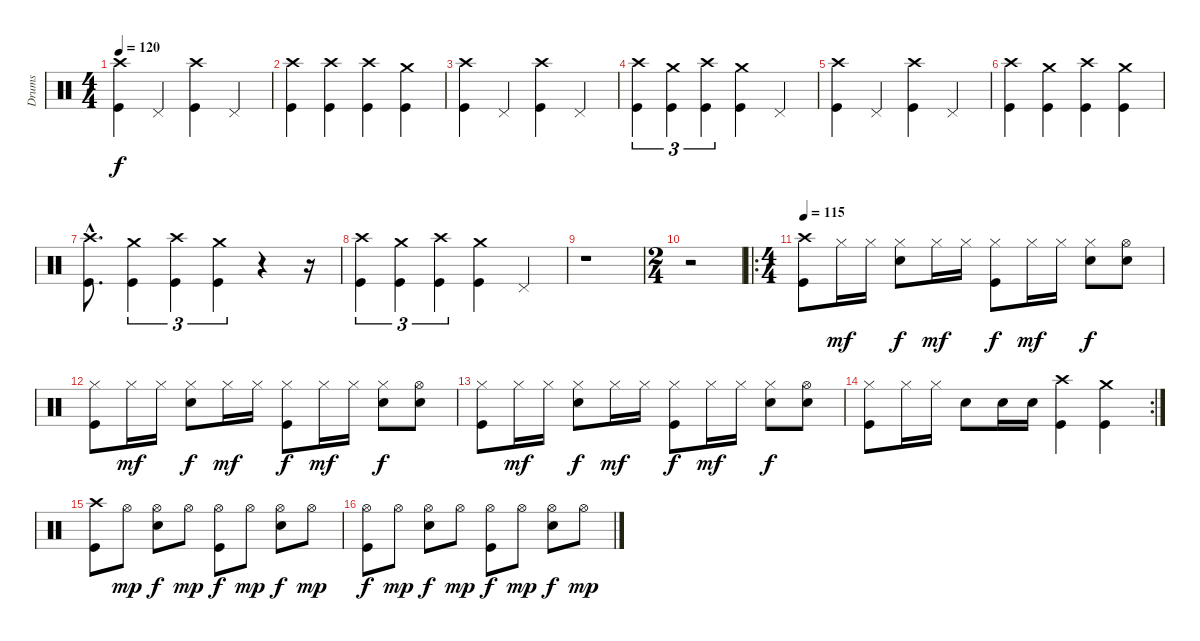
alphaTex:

\track ("Drums" "Drums") {instrument percussion}
\staff {score}
\articulation defaults
\ts (4 4)
\tempo 120
\tempo 100
\tempo 120
\clef neutral
\ks c
("Crash high (hit)" "Kick (hit)").4{dy f} "Pedal Hi-Hat (hit)".4 ("Crash high (hit)" "Kick (hit)").4 "Pedal Hi-Hat (hit)".4 |
("Crash high (hit)" "Kick (hit)").4 ("Crash high (hit)" "Kick (hit)").4 ("Crash high (hit)" "Kick (hit)").4 ("Crash medium (hit)" "Kick (hit)").4 |
("Crash high (hit)" "Kick (hit)").4 "Pedal Hi-Hat (hit)".4 ("Crash high (hit)" "Kick (hit)").4 "Pedal Hi-Hat (hit)".4 |
("Crash high (hit)" "Kick (hit)").4{tu (3 2)} ("Crash medium (hit)" "Kick (hit)").4{tu (3 2)} ("Crash high (hit)" "Kick (hit)").4{tu (3 2)} ("Crash medium (hit)" "Kick (hit)").4 "Pedal Hi-Hat (hit)".4 |
("Crash high (hit)" "Kick (hit)").4 "Pedal Hi-Hat (hit)".4 ("Crash high (hit)" "Kick (hit)").4 "Pedal Hi-Hat (hit)".4 |
("Crash high (hit)" "Kick (hit)").4 ("Crash medium (hit)" "Kick (hit)").4 ("Crash high (hit)" "Kick (hit)").4 ("Crash medium (hit)" "Kick (hit)").4 |
("Crash high (hit)"{hac} "Kick (hit)"{hac}).8{d} ("Crash medium (hit)" "Kick (hit)").4{tu (3 2)} ("Crash high (hit)" "Kick (hit)").4{tu (3 2)} ("Crash medium (hit)" "Kick (hit)").4{tu (3 2)} r.4 r.16 |
("Crash high (hit)" "Kick (hit)").4{tu (3 2)} ("Crash medium (hit)" "Kick (hit)").4{tu (3 2)} ("Crash high (hit)" "Kick (hit)").4{tu (3 2)} ("Crash medium (hit)" "Kick (hit)").4 "Pedal Hi-Hat (hit)".4 |
r.1 |
\ts (2 4)
r.2 |
\ro
\ts (4 4)
\tempo 115
("Crash high (hit)" "Kick (hit)").8 "Hi-Hat (closed)".16{dy mf} "Hi-Hat (closed)".16 ("Hi-Hat (closed)" "Snare (hit) 2").8{dy f} "Hi-Hat (closed)".16{dy mf} "Hi-Hat (closed)".16 ("Hi-Hat (closed)" "Kick (hit)").8{dy f} "Hi-Hat (closed)".16{dy mf} "Hi-Hat (closed)".16 ("Hi-Hat (closed)" "Snare (hit) 2").8{dy f} ("Hi-Hat (open)" "Snare (hit) 2").8 |
("Hi-Hat (closed)" "Kick (hit)").8 "Hi-Hat (closed)".16{dy mf} "Hi-Hat (closed)".16 ("Hi-Hat (closed)" "Snare (hit) 2").8{dy f} "Hi-Hat (closed)".16{dy mf} "Hi-Hat (closed)".16 ("Hi-Hat (closed)" "Kick (hit)").8{dy f} "Hi-Hat (closed)".16{dy mf} "Hi-Hat (closed)".16 ("Hi-Hat (closed)" "Snare (hit) 2").8{dy f} ("Hi-Hat (open)" "Snare (hit) 2").8 |
("Hi-Hat (closed)" "Kick (hit)").8 "Hi-Hat (closed)".16{dy mf} "Hi-Hat (closed)".16 ("Hi-Hat (closed)" "Snare (hit) 2").8{dy f} "Hi-Hat (closed)".16{dy mf} "Hi-Hat (closed)".16 ("Hi-Hat (closed)" "Kick (hit)").8{dy f} "Hi-Hat (closed)".16{dy mf} "Hi-Hat (closed)".16 ("Hi-Hat (closed)" "Snare (hit) 2").8{dy f} ("Hi-Hat (open)" "Snare (hit) 2").8 |
\rc 2
("Hi-Hat (closed)" "Kick (hit)").8 "Hi-Hat (closed)".16 "Hi-Hat (closed)".16 "Snare (hit) 2".8 "Snare (hit) 2".16 "Snare (hit) 2".16 ("Crash high (hit)" "Kick (hit)").4 ("Crash medium (hit)" "Kick (hit)").4 |
("Crash high (hit)" "Kick (hit)").8 "Hi-Hat (open)".8{dy mp} ("Hi-Hat (open)" "Snare (hit) 2").8{dy f} "Hi-Hat (open)".8{dy mp} ("Hi-Hat (open)" "Kick (hit)").8{dy f} "Hi-Hat (open)".8{dy mp} ("Hi-Hat (open)" "Snare (hit) 2").8{dy f} "Hi-Hat (open)".8{dy mp} |
("Hi-Hat (open)" "Kick (hit)").8{dy f} "Hi-Hat (open)".8{dy mp} ("Hi-Hat (open)" "Snare (hit) 2").8{dy f} "Hi-Hat (open)".8{dy mp} ("Hi-Hat (open)" "Kick (hit)").8{dy f} "Hi-Hat (open)".8{dy mp} ("Hi-Hat (open)" "Snare (hit) 2").8{dy f} "Hi-Hat (open)".8{dy mp}
